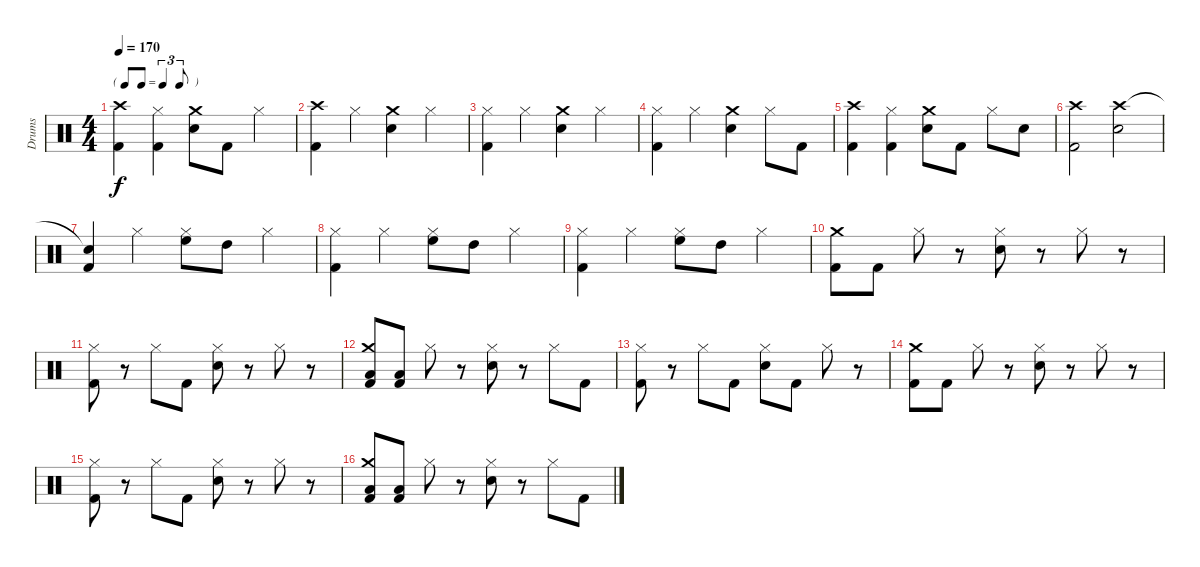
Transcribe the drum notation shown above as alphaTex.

\track ("Drums" "Drums") {instrument percussion}
\staff {score}
\articulation defaults
\ts (4 4)
\tf triplet8th
\tempo 170
\clef neutral
\ks c
("Crash high (hit)" "Kick (hit) 2").4{dy f} ("Hi-Hat (closed)" "Kick (hit) 2").4 ("Crash medium (hit)" "Snare (hit) 2").8 "Kick (hit) 2".8 "Hi-Hat (closed)".4 |
("Crash high (hit)" "Kick (hit) 2").4 "Hi-Hat (closed)".4 ("Crash medium (hit)" "Snare (hit) 2").4 "Hi-Hat (closed)".4 |
("Hi-Hat (closed)" "Kick (hit) 2").4 "Hi-Hat (closed)".4 ("Crash medium (hit)" "Snare (hit) 2").4 "Hi-Hat (closed)".4 |
("Hi-Hat (closed)" "Kick (hit) 2").4 "Hi-Hat (closed)".4 ("Crash medium (hit)" "Snare (hit) 2").4 "Hi-Hat (closed)".8 "Kick (hit) 2".8 |
("Crash high (hit)" "Kick (hit) 2").4 ("Hi-Hat (closed)" "Kick (hit) 2").4 ("Crash medium (hit)" "Snare (hit) 2").8 "Kick (hit) 2".8 "Hi-Hat (closed)".8 "Snare (hit) 2".8 |
("Crash high (hit)" "Kick (hit) 2").2 ("Crash high (hit)" "Snare (hit) 2").2 |
("Snare (hit)"{t} "Kick (hit) 2").4 "Hi-Hat (closed)".4 ("Hi-Hat (closed)" "High Floor Tom (hit)").8 "High Tom (hit)".8 "Hi-Hat (closed)".4 |
("Hi-Hat (closed)" "Kick (hit) 2").4 "Hi-Hat (closed)".4 ("Hi-Hat (closed)" "High Floor Tom (hit)").8 "High Tom (hit)".8 "Hi-Hat (closed)".4 |
("Hi-Hat (closed)" "Kick (hit) 2").4 "Hi-Hat (closed)".4 ("Hi-Hat (closed)" "High Floor Tom (hit)").8 "High Tom (hit)".8 "Hi-Hat (closed)".4 |
("Crash medium (hit)" "Kick (hit) 2").8 "Kick (hit) 2".8 "Hi-Hat (closed)".8 r.8 ("Hi-Hat (closed)" "Snare (hit) 2").8 r.8 "Hi-Hat (closed)".8 r.8 |
("Hi-Hat (closed)" "Kick (hit) 2").8 r.8 "Hi-Hat (closed)".8 "Kick (hit) 2".8 ("Hi-Hat (closed)" "Snare (hit) 2").8 r.8 "Hi-Hat (closed)".8 r.8 |
("Crash medium (hit)" "Low Tom (hit)" "Kick (hit) 2").8 ("Low Tom (hit)" "Kick (hit) 2").8 "Hi-Hat (closed)".8 r.8 ("Hi-Hat (closed)" "Snare (hit) 2").8 r.8 "Hi-Hat (closed)".8 "Kick (hit) 2".8 |
("Hi-Hat (closed)" "Kick (hit) 2").8 r.8 "Hi-Hat (closed)".8 "Kick (hit) 2".8 ("Hi-Hat (closed)" "Snare (hit) 2").8 "Kick (hit) 2".8 "Hi-Hat (closed)".8 r.8 |
("Crash medium (hit)" "Kick (hit) 2").8 "Kick (hit) 2".8 "Hi-Hat (closed)".8 r.8 ("Hi-Hat (closed)" "Snare (hit) 2").8 r.8 "Hi-Hat (closed)".8 r.8 |
("Hi-Hat (closed)" "Kick (hit) 2").8 r.8 "Hi-Hat (closed)".8 "Kick (hit) 2".8 ("Hi-Hat (closed)" "Snare (hit) 2").8 r.8 "Hi-Hat (closed)".8 r.8 |
("Crash medium (hit)" "Low Tom (hit)" "Kick (hit) 2").8 ("Low Tom (hit)" "Kick (hit) 2").8 "Hi-Hat (closed)".8 r.8 ("Hi-Hat (closed)" "Snare (hit) 2").8 r.8 "Hi-Hat (closed)".8 "Kick (hit) 2".8
